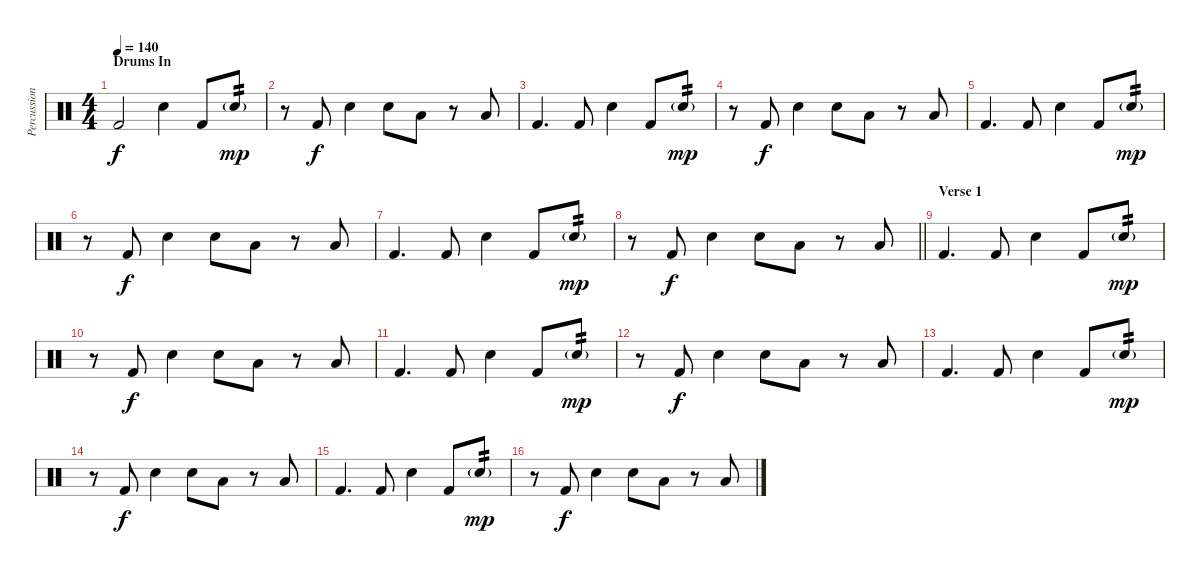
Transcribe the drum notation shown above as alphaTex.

\track ("Percussion" "Percussion") {instrument percussion}
\staff {score}
\articulation defaults
\ts (4 4)
\section ("" "Drums In")
\tempo 140
\clef neutral
\ks c "Kick (hit) 2".2{dy f} "Electric Snare (hit)".4 "Kick (hit) 2".8 "Electric Snare (hit)"{g}.8{tp 2 dy mp}
|
r.8 "Kick (hit) 2".8{dy f} "Electric Snare (hit)".4 "Electric Snare (hit)".8 "Low Tom (hit)".8 r.8 "Low Floor Tom (hit)".8 |
"Kick (hit) 2".4{d} "Kick (hit) 2".8 "Electric Snare (hit)".4 "Kick (hit) 2".8 "Electric Snare (hit)"{g}.8{tp 2 dy mp} |
r.8 "Kick (hit) 2".8{dy f} "Electric Snare (hit)".4 "Electric Snare (hit)".8 "Low Tom (hit)".8 r.8 "Low Floor Tom (hit)".8 |
"Kick (hit) 2".4{d} "Kick (hit) 2".8 "Electric Snare (hit)".4 "Kick (hit) 2".8 "Electric Snare (hit)"{g}.8{tp 2 dy mp} |
r.8 "Kick (hit) 2".8{dy f} "Electric Snare (hit)".4 "Electric Snare (hit)".8 "Low Tom (hit)".8 r.8 "Low Floor Tom (hit)".8 |
"Kick (hit) 2".4{d} "Kick (hit) 2".8 "Electric Snare (hit)".4 "Kick (hit) 2".8 "Electric Snare (hit)"{g}.8{tp 2 dy mp} |
\barLineRight lightlight
r.8 "Kick (hit) 2".8{dy f} "Electric Snare (hit)".4 "Electric Snare (hit)".8 "Low Tom (hit)".8 r.8 "Low Floor Tom (hit)".8 |
\section ("" "Verse 1")
"Kick (hit) 2".4{d} "Kick (hit) 2".8 "Electric Snare (hit)".4 "Kick (hit) 2".8 "Electric Snare (hit)"{g}.8{tp 2 dy mp} |
r.8 "Kick (hit) 2".8{dy f} "Electric Snare (hit)".4 "Electric Snare (hit)".8 "Low Tom (hit)".8 r.8 "Low Floor Tom (hit)".8 |
"Kick (hit) 2".4{d} "Kick (hit) 2".8 "Electric Snare (hit)".4 "Kick (hit) 2".8 "Electric Snare (hit)"{g}.8{tp 2 dy mp} |
r.8 "Kick (hit) 2".8{dy f} "Electric Snare (hit)".4 "Electric Snare (hit)".8 "Low Tom (hit)".8 r.8 "Low Floor Tom (hit)".8 |
"Kick (hit) 2".4{d} "Kick (hit) 2".8 "Electric Snare (hit)".4 "Kick (hit) 2".8 "Electric Snare (hit)"{g}.8{tp 2 dy mp} |
r.8 "Kick (hit) 2".8{dy f} "Electric Snare (hit)".4 "Electric Snare (hit)".8 "Low Tom (hit)".8 r.8 "Low Floor Tom (hit)".8 |
"Kick (hit) 2".4{d} "Kick (hit) 2".8 "Electric Snare (hit)".4 "Kick (hit) 2".8 "Electric Snare (hit)"{g}.8{tp 2 dy mp} |
r.8 "Kick (hit) 2".8{dy f} "Electric Snare (hit)".4 "Electric Snare (hit)".8 "Low Tom (hit)".8 r.8 "Low Floor Tom (hit)".8
